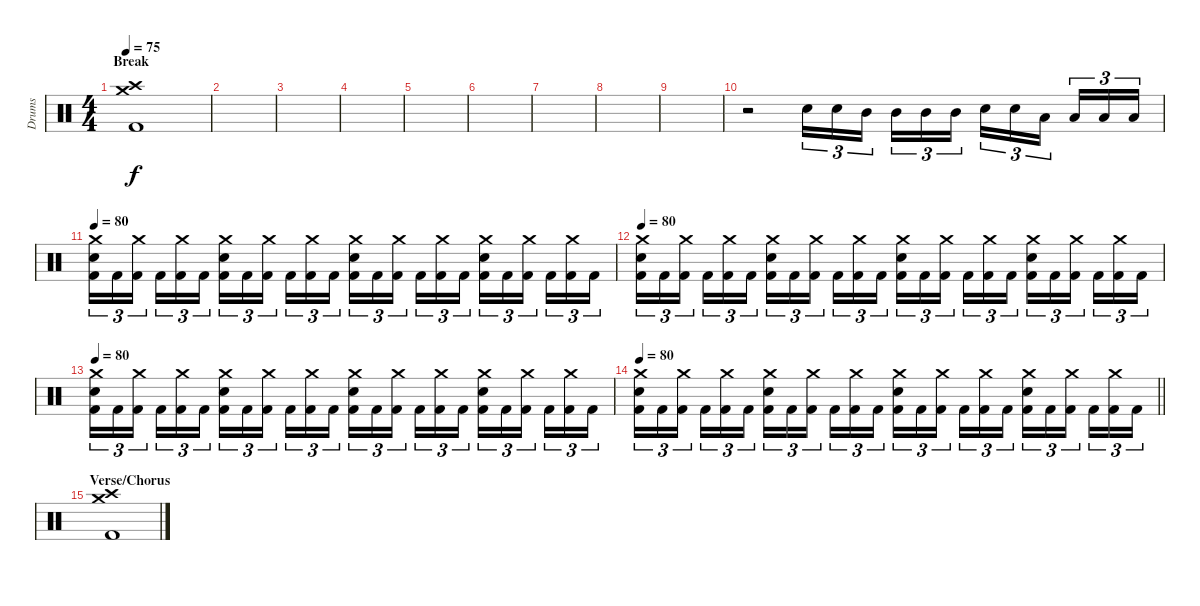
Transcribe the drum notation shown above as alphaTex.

\track ("Drums" "Drums") {instrument percussion}
\staff {score}
\articulation defaults
\ts (4 4)
\section ("" "Break")
\tempo 75
\clef neutral
\ks c
("Crash medium (hit)" "Crash high (hit)" "Kick (hit) 2").1{dy f} |
|
|
|
|
|
|
|
|
r.2 "Electric Snare (hit)".16{tu (3 2)} "Electric Snare (hit)".16{tu (3 2)} "Mid Tom (hit)".16{tu (3 2) beam splitsecondary} "Mid Tom (hit)".16{tu (3 2)} "Mid Tom (hit)".16{tu (3 2)} "Mid Tom (hit)".16{tu (3 2)} "Electric Snare (hit)".16{tu (3 2)} "Electric Snare (hit)".16{tu (3 2)} "Low Tom (hit)".16{tu (3 2) beam splitsecondary} "Low Tom (hit)".16{tu (3 2)} "Low Tom (hit)".16{tu (3 2)} "Low Tom (hit)".16{tu (3 2)} |
\tempo 80
("Crash medium (hit)" "Electric Snare (hit)" "Kick (hit) 2").16{tu (3 2)} "Kick (hit) 2".16{tu (3 2)} ("Crash medium (hit)" "Kick (hit) 2").16{tu (3 2) beam splitsecondary} "Kick (hit) 2".16{tu (3 2)} ("Crash medium (hit)" "Kick (hit) 2").16{tu (3 2)} "Kick (hit) 2".16{tu (3 2)} ("Crash medium (hit)" "Electric Snare (hit)" "Kick (hit) 2").16{tu (3 2)} "Kick (hit) 2".16{tu (3 2)} ("Crash medium (hit)" "Kick (hit) 2").16{tu (3 2) beam splitsecondary} "Kick (hit) 2".16{tu (3 2)} ("Crash medium (hit)" "Kick (hit) 2").16{tu (3 2)} "Kick (hit) 2".16{tu (3 2)} ("Crash medium (hit)" "Electric Snare (hit)" "Kick (hit) 2").16{tu (3 2)} "Kick (hit) 2".16{tu (3 2)} ("Crash medium (hit)" "Kick (hit) 2").16{tu (3 2) beam splitsecondary} "Kick (hit) 2".16{tu (3 2)} ("Crash medium (hit)" "Kick (hit) 2").16{tu (3 2)} "Kick (hit) 2".16{tu (3 2)} ("Crash medium (hit)" "Electric Snare (hit)" "Kick (hit) 2").16{tu (3 2)} "Kick (hit) 2".16{tu (3 2)} ("Crash medium (hit)" "Kick (hit) 2").16{tu (3 2) beam splitsecondary} "Kick (hit) 2".16{tu (3 2)} ("Crash medium (hit)" "Kick (hit) 2").16{tu (3 2)} "Kick (hit) 2".16{tu (3 2)} |
\tempo 80
("Crash medium (hit)" "Electric Snare (hit)" "Kick (hit) 2").16{tu (3 2)} "Kick (hit) 2".16{tu (3 2)} ("Crash medium (hit)" "Kick (hit) 2").16{tu (3 2) beam splitsecondary} "Kick (hit) 2".16{tu (3 2)} ("Crash medium (hit)" "Kick (hit) 2").16{tu (3 2)} "Kick (hit) 2".16{tu (3 2)} ("Crash medium (hit)" "Electric Snare (hit)" "Kick (hit) 2").16{tu (3 2)} "Kick (hit) 2".16{tu (3 2)} ("Crash medium (hit)" "Kick (hit) 2").16{tu (3 2) beam splitsecondary} "Kick (hit) 2".16{tu (3 2)} ("Crash medium (hit)" "Kick (hit) 2").16{tu (3 2)} "Kick (hit) 2".16{tu (3 2)} ("Crash medium (hit)" "Electric Snare (hit)" "Kick (hit) 2").16{tu (3 2)} "Kick (hit) 2".16{tu (3 2)} ("Crash medium (hit)" "Kick (hit) 2").16{tu (3 2) beam splitsecondary} "Kick (hit) 2".16{tu (3 2)} ("Crash medium (hit)" "Kick (hit) 2").16{tu (3 2)} "Kick (hit) 2".16{tu (3 2)} ("Crash medium (hit)" "Electric Snare (hit)" "Kick (hit) 2").16{tu (3 2)} "Kick (hit) 2".16{tu (3 2)} ("Crash medium (hit)" "Kick (hit) 2").16{tu (3 2) beam splitsecondary} "Kick (hit) 2".16{tu (3 2)} ("Crash medium (hit)" "Kick (hit) 2").16{tu (3 2)} "Kick (hit) 2".16{tu (3 2)} |
\tempo 80
("Crash medium (hit)" "Electric Snare (hit)" "Kick (hit) 2").16{tu (3 2)} "Kick (hit) 2".16{tu (3 2)} ("Crash medium (hit)" "Kick (hit) 2").16{tu (3 2) beam splitsecondary} "Kick (hit) 2".16{tu (3 2)} ("Crash medium (hit)" "Kick (hit) 2").16{tu (3 2)} "Kick (hit) 2".16{tu (3 2)} ("Crash medium (hit)" "Electric Snare (hit)" "Kick (hit) 2").16{tu (3 2)} "Kick (hit) 2".16{tu (3 2)} ("Crash medium (hit)" "Kick (hit) 2").16{tu (3 2) beam splitsecondary} "Kick (hit) 2".16{tu (3 2)} ("Crash medium (hit)" "Kick (hit) 2").16{tu (3 2)} "Kick (hit) 2".16{tu (3 2)} ("Crash medium (hit)" "Electric Snare (hit)" "Kick (hit) 2").16{tu (3 2)} "Kick (hit) 2".16{tu (3 2)} ("Crash medium (hit)" "Kick (hit) 2").16{tu (3 2) beam splitsecondary} "Kick (hit) 2".16{tu (3 2)} ("Crash medium (hit)" "Kick (hit) 2").16{tu (3 2)} "Kick (hit) 2".16{tu (3 2)} ("Crash medium (hit)" "Electric Snare (hit)" "Kick (hit) 2").16{tu (3 2)} "Kick (hit) 2".16{tu (3 2)} ("Crash medium (hit)" "Kick (hit) 2").16{tu (3 2) beam splitsecondary} "Kick (hit) 2".16{tu (3 2)} ("Crash medium (hit)" "Kick (hit) 2").16{tu (3 2)} "Kick (hit) 2".16{tu (3 2)} |
\tempo 80
\barLineRight lightlight
("Crash medium (hit)" "Electric Snare (hit)" "Kick (hit) 2").16{tu (3 2)} "Kick (hit) 2".16{tu (3 2)} ("Crash medium (hit)" "Kick (hit) 2").16{tu (3 2) beam splitsecondary} "Kick (hit) 2".16{tu (3 2)} ("Crash medium (hit)" "Kick (hit) 2").16{tu (3 2)} "Kick (hit) 2".16{tu (3 2)} ("Crash medium (hit)" "Electric Snare (hit)" "Kick (hit) 2").16{tu (3 2)} "Kick (hit) 2".16{tu (3 2)} ("Crash medium (hit)" "Kick (hit) 2").16{tu (3 2) beam splitsecondary} "Kick (hit) 2".16{tu (3 2)} ("Crash medium (hit)" "Kick (hit) 2").16{tu (3 2)} "Kick (hit) 2".16{tu (3 2)} ("Crash medium (hit)" "Electric Snare (hit)" "Kick (hit) 2").16{tu (3 2)} "Kick (hit) 2".16{tu (3 2)} ("Crash medium (hit)" "Kick (hit) 2").16{tu (3 2) beam splitsecondary} "Kick (hit) 2".16{tu (3 2)} ("Crash medium (hit)" "Kick (hit) 2").16{tu (3 2)} "Kick (hit) 2".16{tu (3 2)} ("Crash medium (hit)" "Electric Snare (hit)" "Kick (hit) 2").16{tu (3 2)} "Kick (hit) 2".16{tu (3 2)} ("Crash medium (hit)" "Kick (hit) 2").16{tu (3 2) beam splitsecondary} "Kick (hit) 2".16{tu (3 2)} ("Crash medium (hit)" "Kick (hit) 2").16{tu (3 2)} "Kick (hit) 2".16{tu (3 2)} |
\section ("" "Verse/Chorus")
("Crash medium (hit)" "Crash high (hit)" "Kick (hit) 2").1
